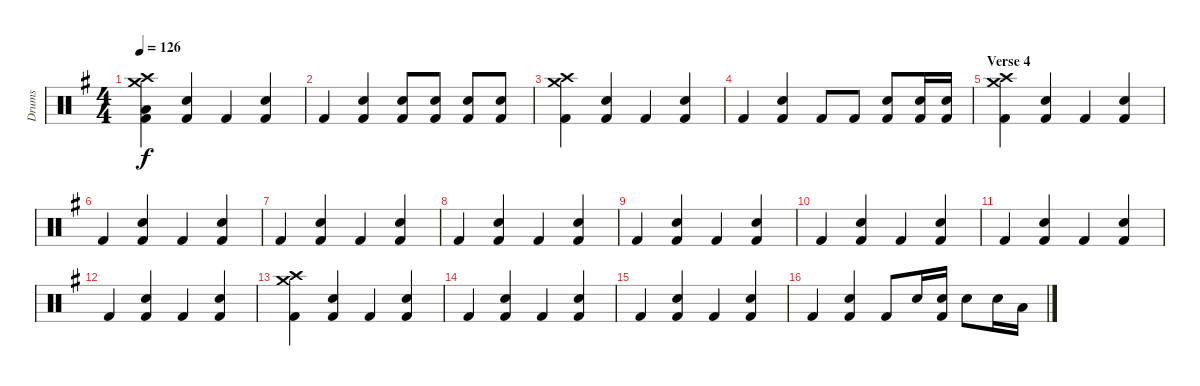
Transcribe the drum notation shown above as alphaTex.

\track ("Drums" "Drums") {instrument percussion}
\staff {score}
\articulation defaults
\ts (4 4)
\tempo 126
\clef neutral
\ks g
("Crash medium (hit)" "Crash high (hit)" "Low Floor Tom (hit)" "Kick (hit) 2").4{dy f} ("Snare (hit) 2" "Kick (hit) 2").4 "Kick (hit) 2".4 ("Snare (hit) 2" "Kick (hit) 2").4 |
"Kick (hit) 2".4 ("Snare (hit) 2" "Kick (hit) 2").4 ("Snare (hit) 2" "Kick (hit) 2").8 ("Snare (hit) 2" "Kick (hit) 2").8 ("Snare (hit) 2" "Kick (hit) 2").8 ("Snare (hit) 2" "Kick (hit) 2").8 |
("Crash medium (hit)" "Crash high (hit)" "Kick (hit) 2").4 ("Snare (hit) 2" "Kick (hit) 2").4 "Kick (hit) 2".4 ("Snare (hit) 2" "Kick (hit) 2").4 |
"Kick (hit) 2".4 ("Snare (hit) 2" "Kick (hit) 2").4 "Kick (hit) 2".8 "Kick (hit) 2".8 ("Snare (hit) 2" "Kick (hit) 2").8 ("Snare (hit) 2" "Kick (hit) 2").16 ("Snare (hit) 2" "Kick (hit) 2").16 |
\section ("" "Verse 4")
("Crash medium (hit)" "Crash high (hit)" "Kick (hit) 2").4 ("Snare (hit) 2" "Kick (hit) 2").4 "Kick (hit) 2".4 ("Snare (hit) 2" "Kick (hit) 2").4 |
"Kick (hit) 2".4 ("Snare (hit) 2" "Kick (hit) 2").4 "Kick (hit) 2".4 ("Snare (hit) 2" "Kick (hit) 2").4 |
"Kick (hit) 2".4 ("Snare (hit) 2" "Kick (hit) 2").4 "Kick (hit) 2".4 ("Snare (hit) 2" "Kick (hit) 2").4 |
"Kick (hit) 2".4 ("Snare (hit) 2" "Kick (hit) 2").4 "Kick (hit) 2".4 ("Snare (hit) 2" "Kick (hit) 2").4 |
"Kick (hit) 2".4 ("Snare (hit) 2" "Kick (hit) 2").4 "Kick (hit) 2".4 ("Snare (hit) 2" "Kick (hit) 2").4 |
"Kick (hit) 2".4 ("Snare (hit) 2" "Kick (hit) 2").4 "Kick (hit) 2".4 ("Snare (hit) 2" "Kick (hit) 2").4 |
"Kick (hit) 2".4 ("Snare (hit) 2" "Kick (hit) 2").4 "Kick (hit) 2".4 ("Snare (hit) 2" "Kick (hit) 2").4 |
"Kick (hit) 2".4 ("Snare (hit) 2" "Kick (hit) 2").4 "Kick (hit) 2".4 ("Snare (hit) 2" "Kick (hit) 2").4 |
("Crash medium (hit)" "Crash high (hit)" "Kick (hit) 2").4 ("Snare (hit) 2" "Kick (hit) 2").4 "Kick (hit) 2".4 ("Snare (hit) 2" "Kick (hit) 2").4 |
"Kick (hit) 2".4 ("Snare (hit) 2" "Kick (hit) 2").4 "Kick (hit) 2".4 ("Snare (hit) 2" "Kick (hit) 2").4 |
"Kick (hit) 2".4 ("Snare (hit) 2" "Kick (hit) 2").4 "Kick (hit) 2".4 ("Snare (hit) 2" "Kick (hit) 2").4 |
"Kick (hit) 2".4 ("Snare (hit) 2" "Kick (hit) 2").4 "Kick (hit) 2".8 "Snare (hit) 2".16 ("Snare (hit) 2" "Kick (hit) 2").16 "Snare (hit) 2".8 "Snare (hit) 2".16 "Low Floor Tom (hit)".16
